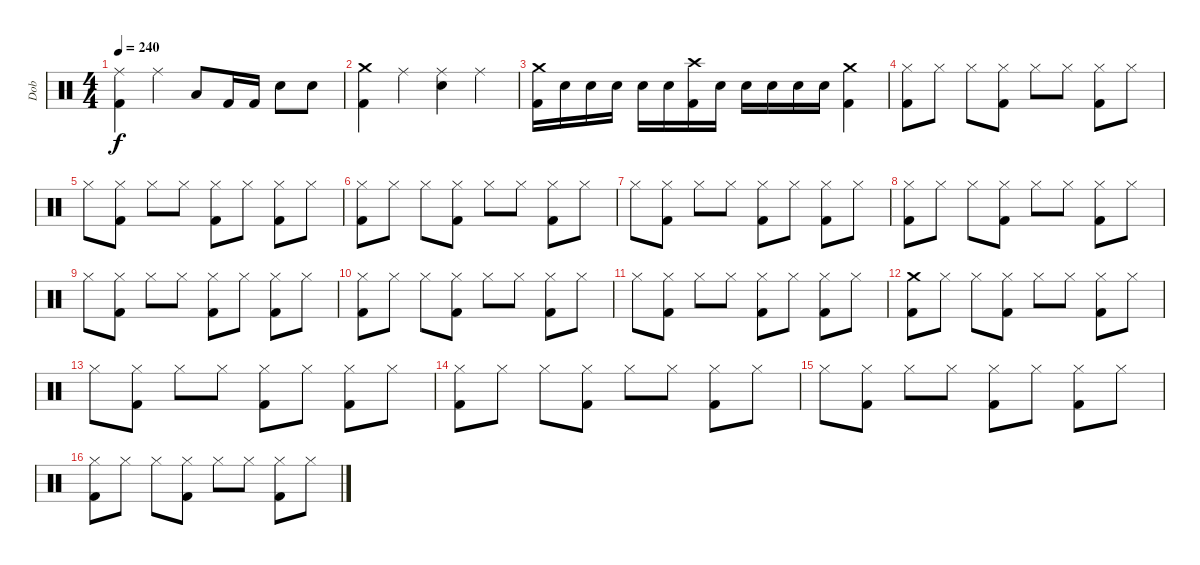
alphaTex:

\track ("Dob" "Dob") {instrument percussion}
\staff {score}
\articulation defaults
\ts (4 4)
\tempo 240
\clef neutral
\ks c
("Ride (middle)" "Kick (hit) 2").4{dy f} "Ride (middle)".4 "Low Tom (hit)".8 "Kick (hit) 2".16 "Kick (hit) 2".16 "Electric Snare (hit)".8 "Electric Snare (hit)".8 |
("Crash medium (hit)" "Kick (hit) 2").4 "Ride (middle)".4 ("Ride (middle)" "Electric Snare (hit)").4 "Ride (middle)".4 |
("Crash medium (hit)" "Kick (hit) 2").16 "Electric Snare (hit)".16 "Electric Snare (hit)".16 "Electric Snare (hit)".16 "Electric Snare (hit)".16 "Electric Snare (hit)".16 ("Crash high (hit)" "Kick (hit) 2").16 "Electric Snare (hit)".16 "Electric Snare (hit)".16 "Electric Snare (hit)".16 "Electric Snare (hit)".16 "Electric Snare (hit)".16 ("Crash medium (hit)" "Kick (hit) 2").4 |
("Hi-Hat (closed)" "Kick (hit) 2").8 "Hi-Hat (closed)".8 "Hi-Hat (closed)".8 ("Hi-Hat (closed)" "Kick (hit) 2").8 "Hi-Hat (closed)".8 "Hi-Hat (closed)".8 ("Hi-Hat (closed)" "Kick (hit) 2").8 "Hi-Hat (closed)".8 |
"Hi-Hat (closed)".8 ("Hi-Hat (closed)" "Kick (hit) 2").8 "Hi-Hat (closed)".8 "Hi-Hat (closed)".8 ("Hi-Hat (closed)" "Kick (hit) 2").8 "Hi-Hat (closed)".8 ("Hi-Hat (closed)" "Kick (hit) 2").8 "Hi-Hat (closed)".8 |
("Hi-Hat (closed)" "Kick (hit) 2").8 "Hi-Hat (closed)".8 "Hi-Hat (closed)".8 ("Hi-Hat (closed)" "Kick (hit) 2").8 "Hi-Hat (closed)".8 "Hi-Hat (closed)".8 ("Hi-Hat (closed)" "Kick (hit) 2").8 "Hi-Hat (closed)".8 |
"Hi-Hat (closed)".8 ("Hi-Hat (closed)" "Kick (hit) 2").8 "Hi-Hat (closed)".8 "Hi-Hat (closed)".8 ("Hi-Hat (closed)" "Kick (hit) 2").8 "Hi-Hat (closed)".8 ("Hi-Hat (closed)" "Kick (hit) 2").8 "Hi-Hat (closed)".8 |
("Hi-Hat (closed)" "Kick (hit) 2").8 "Hi-Hat (closed)".8 "Hi-Hat (closed)".8 ("Hi-Hat (closed)" "Kick (hit) 2").8 "Hi-Hat (closed)".8 "Hi-Hat (closed)".8 ("Hi-Hat (closed)" "Kick (hit) 2").8 "Hi-Hat (closed)".8 |
"Hi-Hat (closed)".8 ("Hi-Hat (closed)" "Kick (hit) 2").8 "Hi-Hat (closed)".8 "Hi-Hat (closed)".8 ("Hi-Hat (closed)" "Kick (hit) 2").8 "Hi-Hat (closed)".8 ("Hi-Hat (closed)" "Kick (hit) 2").8 "Hi-Hat (closed)".8 |
("Hi-Hat (closed)" "Kick (hit) 2").8 "Hi-Hat (closed)".8 "Hi-Hat (closed)".8 ("Hi-Hat (closed)" "Kick (hit) 2").8 "Hi-Hat (closed)".8 "Hi-Hat (closed)".8 ("Hi-Hat (closed)" "Kick (hit) 2").8 "Hi-Hat (closed)".8 |
"Hi-Hat (closed)".8 ("Hi-Hat (closed)" "Kick (hit) 2").8 "Hi-Hat (closed)".8 "Hi-Hat (closed)".8 ("Hi-Hat (closed)" "Kick (hit) 2").8 "Hi-Hat (closed)".8 ("Hi-Hat (closed)" "Kick (hit) 2").8 "Hi-Hat (closed)".8 |
("Crash medium (hit)" "Kick (hit) 2").8 "Hi-Hat (closed)".8 "Hi-Hat (closed)".8 ("Hi-Hat (closed)" "Kick (hit) 2").8 "Hi-Hat (closed)".8 "Hi-Hat (closed)".8 ("Hi-Hat (closed)" "Kick (hit) 2").8 "Hi-Hat (closed)".8 |
"Hi-Hat (closed)".8 ("Hi-Hat (closed)" "Kick (hit) 2").8 "Hi-Hat (closed)".8 "Hi-Hat (closed)".8 ("Hi-Hat (closed)" "Kick (hit) 2").8 "Hi-Hat (closed)".8 ("Hi-Hat (closed)" "Kick (hit) 2").8 "Hi-Hat (closed)".8 |
("Hi-Hat (closed)" "Kick (hit) 2").8 "Hi-Hat (closed)".8 "Hi-Hat (closed)".8 ("Hi-Hat (closed)" "Kick (hit) 2").8 "Hi-Hat (closed)".8 "Hi-Hat (closed)".8 ("Hi-Hat (closed)" "Kick (hit) 2").8 "Hi-Hat (closed)".8 |
"Hi-Hat (closed)".8 ("Hi-Hat (closed)" "Kick (hit) 2").8 "Hi-Hat (closed)".8 "Hi-Hat (closed)".8 ("Hi-Hat (closed)" "Kick (hit) 2").8 "Hi-Hat (closed)".8 ("Hi-Hat (closed)" "Kick (hit) 2").8 "Hi-Hat (closed)".8 |
("Hi-Hat (closed)" "Kick (hit) 2").8 "Hi-Hat (closed)".8 "Hi-Hat (closed)".8 ("Hi-Hat (closed)" "Kick (hit) 2").8 "Hi-Hat (closed)".8 "Hi-Hat (closed)".8 ("Hi-Hat (closed)" "Kick (hit) 2").8 "Hi-Hat (closed)".8
